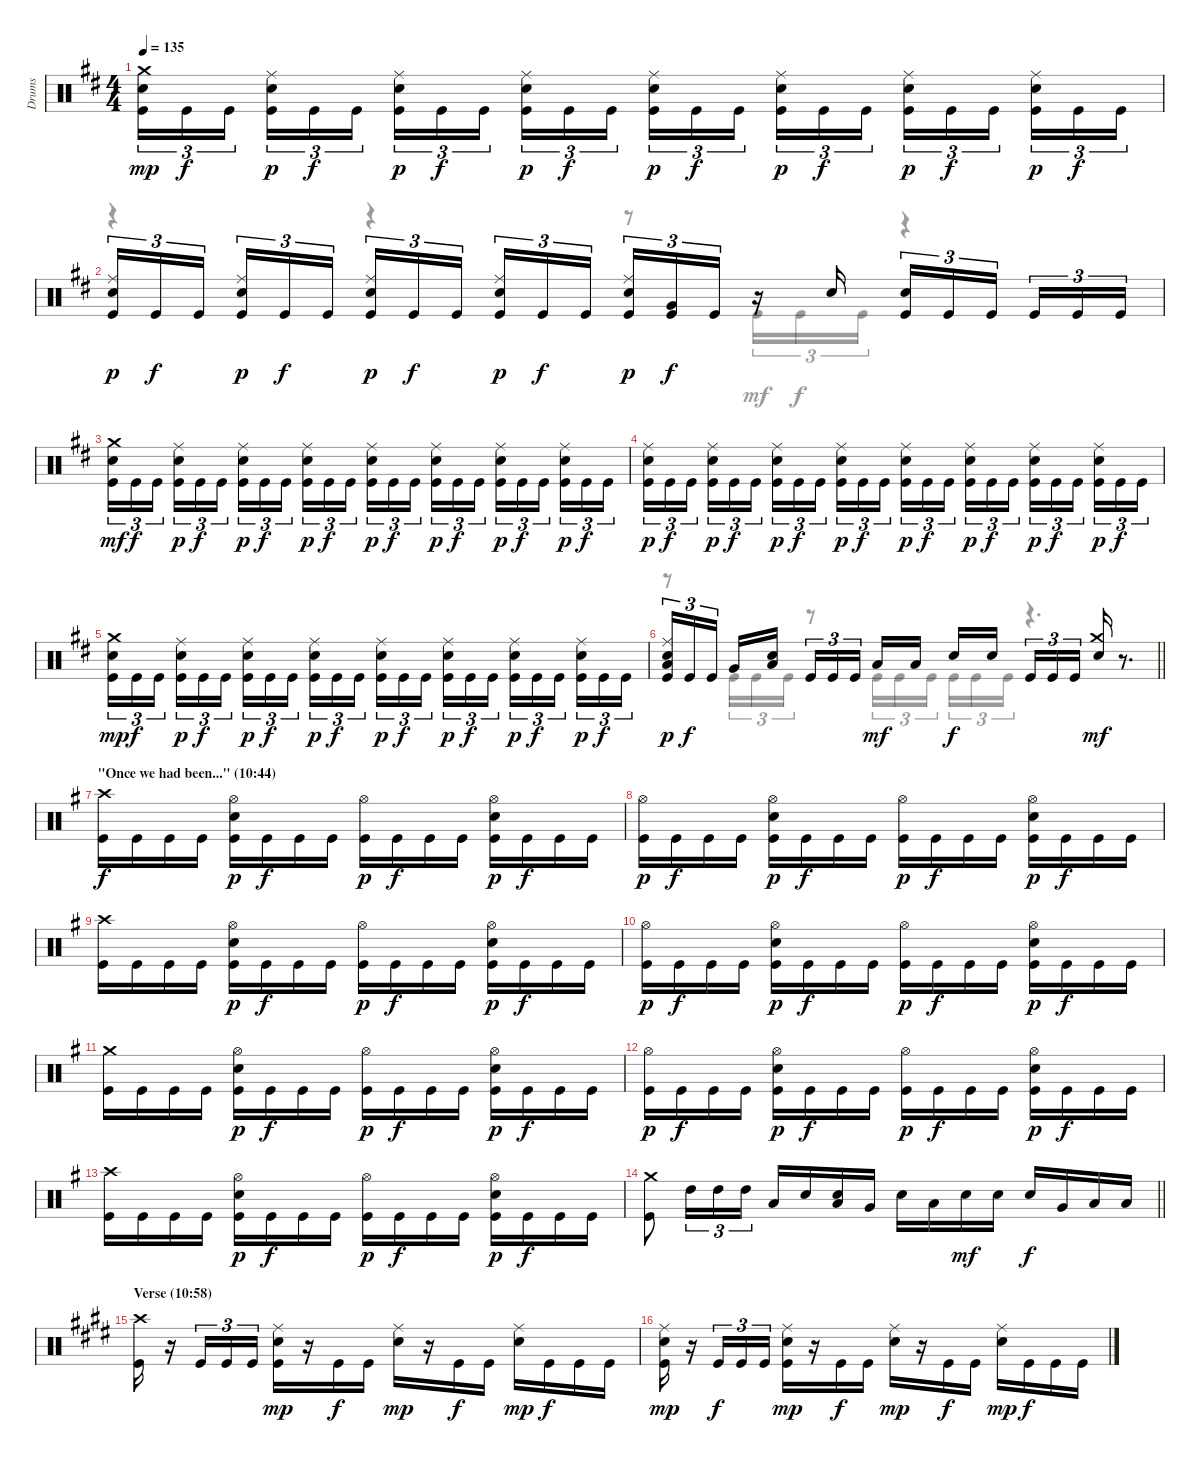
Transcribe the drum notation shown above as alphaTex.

\track ("Drums" "Drums") {instrument percussion}
\staff {score}
\articulation defaults
\voice
\ts (4 4)
\tempo 135
\clef neutral
\ks bminor
("Crash medium (hit)" "Snare (hit) 2" "Kick (hit)").16{tu (3 2) dy mp} "Kick (hit)".16{tu (3 2) dy f} "Kick (hit)".16{tu (3 2) beam splitsecondary} ("Ride (middle)" "Snare (hit) 2" "Kick (hit)").16{tu (3 2) dy p} "Kick (hit)".16{tu (3 2) dy f} "Kick (hit)".16{tu (3 2)} ("Ride (middle)" "Snare (hit) 2" "Kick (hit)").16{tu (3 2) dy p} "Kick (hit)".16{tu (3 2) dy f} "Kick (hit)".16{tu (3 2) beam splitsecondary} ("Ride (middle)" "Snare (hit) 2" "Kick (hit)").16{tu (3 2) dy p} "Kick (hit)".16{tu (3 2) dy f} "Kick (hit)".16{tu (3 2)} ("Ride (middle)" "Snare (hit) 2" "Kick (hit)").16{tu (3 2) dy p} "Kick (hit)".16{tu (3 2) dy f} "Kick (hit)".16{tu (3 2) beam splitsecondary} ("Ride (middle)" "Snare (hit) 2" "Kick (hit)").16{tu (3 2) dy p} "Kick (hit)".16{tu (3 2) dy f} "Kick (hit)".16{tu (3 2)} ("Ride (middle)" "Snare (hit) 2" "Kick (hit)").16{tu (3 2) dy p} "Kick (hit)".16{tu (3 2) dy f} "Kick (hit)".16{tu (3 2) beam splitsecondary} ("Ride (middle)" "Snare (hit) 2" "Kick (hit)").16{tu (3 2) dy p} "Kick (hit)".16{tu (3 2) dy f} "Kick (hit)".16{tu (3 2)} |
("Ride (middle)" "Snare (hit) 2" "Kick (hit)").16{tu (3 2) dy p} "Kick (hit)".16{tu (3 2) dy f} "Kick (hit)".16{tu (3 2) beam splitsecondary} ("Ride (middle)" "Snare (hit) 2" "Kick (hit)").16{tu (3 2) dy p} "Kick (hit)".16{tu (3 2) dy f} "Kick (hit)".16{tu (3 2)} ("Ride (middle)" "Snare (hit) 2" "Kick (hit)").16{tu (3 2) dy p} "Kick (hit)".16{tu (3 2) dy f} "Kick (hit)".16{tu (3 2) beam splitsecondary} ("Ride (middle)" "Snare (hit) 2" "Kick (hit)").16{tu (3 2) dy p} "Kick (hit)".16{tu (3 2) dy f} "Kick (hit)".16{tu (3 2)} ("Ride (middle)" "Snare (hit) 2" "Kick (hit)").16{tu (3 2) dy p} ("Very Low Tom (hit)" "Kick (hit)").16{tu (3 2) dy f} "Kick (hit)".16{tu (3 2)} r.16 "Snare (hit) 2".16 ("Snare (hit) 2" "Kick (hit)").16{tu (3 2)} "Kick (hit)".16{tu (3 2)} "Kick (hit)".16{tu (3 2) beam splitsecondary} "Kick (hit)".16{tu (3 2)} "Kick (hit)".16{tu (3 2)} "Kick (hit)".16{tu (3 2)} |
("Crash medium (hit)" "Snare (hit) 2" "Kick (hit)").16{tu (3 2) dy mf} "Kick (hit)".16{tu (3 2) dy f} "Kick (hit)".16{tu (3 2) beam splitsecondary} ("Ride (middle)" "Snare (hit) 2" "Kick (hit)").16{tu (3 2) dy p} "Kick (hit)".16{tu (3 2) dy f} "Kick (hit)".16{tu (3 2)} ("Ride (middle)" "Snare (hit) 2" "Kick (hit)").16{tu (3 2) dy p} "Kick (hit)".16{tu (3 2) dy f} "Kick (hit)".16{tu (3 2) beam splitsecondary} ("Ride (middle)" "Snare (hit) 2" "Kick (hit)").16{tu (3 2) dy p} "Kick (hit)".16{tu (3 2) dy f} "Kick (hit)".16{tu (3 2)} ("Ride (middle)" "Snare (hit) 2" "Kick (hit)").16{tu (3 2) dy p} "Kick (hit)".16{tu (3 2) dy f} "Kick (hit)".16{tu (3 2) beam splitsecondary} ("Ride (middle)" "Snare (hit) 2" "Kick (hit)").16{tu (3 2) dy p} "Kick (hit)".16{tu (3 2) dy f} "Kick (hit)".16{tu (3 2)} ("Ride (middle)" "Snare (hit) 2" "Kick (hit)").16{tu (3 2) dy p} "Kick (hit)".16{tu (3 2) dy f} "Kick (hit)".16{tu (3 2) beam splitsecondary} ("Ride (middle)" "Snare (hit) 2" "Kick (hit)").16{tu (3 2) dy p} "Kick (hit)".16{tu (3 2) dy f} "Kick (hit)".16{tu (3 2)} |
("Ride (middle)" "Snare (hit) 2" "Kick (hit)").16{tu (3 2) dy p} "Kick (hit)".16{tu (3 2) dy f} "Kick (hit)".16{tu (3 2) beam splitsecondary} ("Ride (middle)" "Snare (hit) 2" "Kick (hit)").16{tu (3 2) dy p} "Kick (hit)".16{tu (3 2) dy f} "Kick (hit)".16{tu (3 2)} ("Ride (middle)" "Snare (hit) 2" "Kick (hit)").16{tu (3 2) dy p} "Kick (hit)".16{tu (3 2) dy f} "Kick (hit)".16{tu (3 2) beam splitsecondary} ("Ride (middle)" "Snare (hit) 2" "Kick (hit)").16{tu (3 2) dy p} "Kick (hit)".16{tu (3 2) dy f} "Kick (hit)".16{tu (3 2)} ("Ride (middle)" "Snare (hit) 2" "Kick (hit)").16{tu (3 2) dy p} "Kick (hit)".16{tu (3 2) dy f} "Kick (hit)".16{tu (3 2) beam splitsecondary} ("Ride (middle)" "Snare (hit) 2" "Kick (hit)").16{tu (3 2) dy p} "Kick (hit)".16{tu (3 2) dy f} "Kick (hit)".16{tu (3 2)} ("Ride (middle)" "Snare (hit) 2" "Kick (hit)").16{tu (3 2) dy p} "Kick (hit)".16{tu (3 2) dy f} "Kick (hit)".16{tu (3 2) beam splitsecondary} ("Ride (middle)" "Snare (hit) 2" "Kick (hit)").16{tu (3 2) dy p} "Kick (hit)".16{tu (3 2) dy f} "Kick (hit)".16{tu (3 2)} |
("Crash medium (hit)" "Snare (hit) 2" "Kick (hit)").16{tu (3 2) dy mp} "Kick (hit)".16{tu (3 2) dy f} "Kick (hit)".16{tu (3 2) beam splitsecondary} ("Ride (middle)" "Snare (hit) 2" "Kick (hit)").16{tu (3 2) dy p} "Kick (hit)".16{tu (3 2) dy f} "Kick (hit)".16{tu (3 2)} ("Ride (middle)" "Snare (hit) 2" "Kick (hit)").16{tu (3 2) dy p} "Kick (hit)".16{tu (3 2) dy f} "Kick (hit)".16{tu (3 2) beam splitsecondary} ("Ride (middle)" "Snare (hit) 2" "Kick (hit)").16{tu (3 2) dy p} "Kick (hit)".16{tu (3 2) dy f} "Kick (hit)".16{tu (3 2)} ("Ride (middle)" "Snare (hit) 2" "Kick (hit)").16{tu (3 2) dy p} "Kick (hit)".16{tu (3 2) dy f} "Kick (hit)".16{tu (3 2) beam splitsecondary} ("Ride (middle)" "Snare (hit) 2" "Kick (hit)").16{tu (3 2) dy p} "Kick (hit)".16{tu (3 2) dy f} "Kick (hit)".16{tu (3 2)} ("Ride (middle)" "Snare (hit) 2" "Kick (hit)").16{tu (3 2) dy p} "Kick (hit)".16{tu (3 2) dy f} "Kick (hit)".16{tu (3 2) beam splitsecondary} ("Ride (middle)" "Snare (hit) 2" "Kick (hit)").16{tu (3 2) dy p} "Kick (hit)".16{tu (3 2) dy f} "Kick (hit)".16{tu (3 2)} |
\barLineRight lightlight
("Ride (middle)" "Low Floor Tom (hit)" "Snare (hit) 2" "Kick (hit)").16{tu (3 2) dy p} "Kick (hit)".16{tu (3 2) dy f} "Kick (hit)".16{tu (3 2) beam splitsecondary} "Very Low Tom (hit)".16 ("Low Floor Tom (hit)" "Snare (hit) 2").16 "Kick (hit)".16{tu (3 2)} "Kick (hit)".16{tu (3 2)} "Kick (hit)".16{tu (3 2) beam splitsecondary} "Low Floor Tom (hit)".16{dy mf} "Low Floor Tom (hit)".16 "Snare (hit) 2".16{dy f} "Snare (hit) 2".16{beam splitsecondary} "Kick (hit)".16{tu (3 2)} "Kick (hit)".16{tu (3 2)} "Kick (hit)".16{tu (3 2)} ("Crash medium (hit)" "Snare (hit) 2").16{dy mf} r.8{d} |
\section ("" "\"Once we had been...\" (10:44)")
\ks eminor
("Crash high (hit)" "Kick (hit)").16{dy f} "Kick (hit)".16 "Kick (hit)".16 "Kick (hit)".16 ("Hi-Hat (open)" "Snare (hit) 2" "Kick (hit)").16{dy p} "Kick (hit)".16{dy f} "Kick (hit)".16 "Kick (hit)".16 ("Hi-Hat (open)" "Kick (hit)").16{dy p} "Kick (hit)".16{dy f} "Kick (hit)".16 "Kick (hit)".16 ("Hi-Hat (open)" "Snare (hit) 2" "Kick (hit)").16{dy p} "Kick (hit)".16{dy f} "Kick (hit)".16 "Kick (hit)".16 |
("Hi-Hat (open)" "Kick (hit)").16{dy p} "Kick (hit)".16{dy f} "Kick (hit)".16 "Kick (hit)".16 ("Hi-Hat (open)" "Snare (hit) 2" "Kick (hit)").16{dy p} "Kick (hit)".16{dy f} "Kick (hit)".16 "Kick (hit)".16 ("Hi-Hat (open)" "Kick (hit)").16{dy p} "Kick (hit)".16{dy f} "Kick (hit)".16 "Kick (hit)".16 ("Hi-Hat (open)" "Snare (hit) 2" "Kick (hit)").16{dy p} "Kick (hit)".16{dy f} "Kick (hit)".16 "Kick (hit)".16 |
("Crash high (hit)" "Kick (hit)").16 "Kick (hit)".16 "Kick (hit)".16 "Kick (hit)".16 ("Hi-Hat (open)" "Snare (hit) 2" "Kick (hit)").16{dy p} "Kick (hit)".16{dy f} "Kick (hit)".16 "Kick (hit)".16 ("Hi-Hat (open)" "Kick (hit)").16{dy p} "Kick (hit)".16{dy f} "Kick (hit)".16 "Kick (hit)".16 ("Hi-Hat (open)" "Snare (hit) 2" "Kick (hit)").16{dy p} "Kick (hit)".16{dy f} "Kick (hit)".16 "Kick (hit)".16 |
("Hi-Hat (open)" "Kick (hit)").16{dy p} "Kick (hit)".16{dy f} "Kick (hit)".16 "Kick (hit)".16 ("Hi-Hat (open)" "Snare (hit) 2" "Kick (hit)").16{dy p} "Kick (hit)".16{dy f} "Kick (hit)".16 "Kick (hit)".16 ("Hi-Hat (open)" "Kick (hit)").16{dy p} "Kick (hit)".16{dy f} "Kick (hit)".16 "Kick (hit)".16 ("Hi-Hat (open)" "Snare (hit) 2" "Kick (hit)").16{dy p} "Kick (hit)".16{dy f} "Kick (hit)".16 "Kick (hit)".16 |
("Crash medium (hit)" "Kick (hit)").16 "Kick (hit)".16 "Kick (hit)".16 "Kick (hit)".16 ("Hi-Hat (open)" "Snare (hit) 2" "Kick (hit)").16{dy p} "Kick (hit)".16{dy f} "Kick (hit)".16 "Kick (hit)".16 ("Hi-Hat (open)" "Kick (hit)").16{dy p} "Kick (hit)".16{dy f} "Kick (hit)".16 "Kick (hit)".16 ("Hi-Hat (open)" "Snare (hit) 2" "Kick (hit)").16{dy p} "Kick (hit)".16{dy f} "Kick (hit)".16 "Kick (hit)".16 |
("Hi-Hat (open)" "Kick (hit)").16{dy p} "Kick (hit)".16{dy f} "Kick (hit)".16 "Kick (hit)".16 ("Hi-Hat (open)" "Snare (hit) 2" "Kick (hit)").16{dy p} "Kick (hit)".16{dy f} "Kick (hit)".16 "Kick (hit)".16 ("Hi-Hat (open)" "Kick (hit)").16{dy p} "Kick (hit)".16{dy f} "Kick (hit)".16 "Kick (hit)".16 ("Hi-Hat (open)" "Snare (hit) 2" "Kick (hit)").16{dy p} "Kick (hit)".16{dy f} "Kick (hit)".16 "Kick (hit)".16 |
("Crash high (hit)" "Kick (hit)").16 "Kick (hit)".16 "Kick (hit)".16 "Kick (hit)".16 ("Hi-Hat (open)" "Snare (hit) 2" "Kick (hit)").16{dy p} "Kick (hit)".16{dy f} "Kick (hit)".16 "Kick (hit)".16 ("Hi-Hat (open)" "Kick (hit)").16{dy p} "Kick (hit)".16{dy f} "Kick (hit)".16 "Kick (hit)".16 ("Hi-Hat (open)" "Snare (hit) 2" "Kick (hit)").16{dy p} "Kick (hit)".16{dy f} "Kick (hit)".16 "Kick (hit)".16 |
\barLineRight lightlight
("Crash medium (hit)" "Kick (hit)").8 "High Tom (hit)".16{tu (3 2)} "High Tom (hit)".16{tu (3 2)} "High Tom (hit)".16{tu (3 2)} "Low Tom (hit)".16 "Snare (hit) 2".16 ("Low Tom (hit)" "Snare (hit) 2").16 "Very Low Tom (hit)".16 "Snare (hit) 2".16 "Low Tom (hit)".16 "Snare (hit) 2".16{dy mf} "Snare (hit) 2".16 "Snare (hit) 2".16{dy f} "Very Low Tom (hit)".16 "Low Floor Tom (hit)".16 "Low Floor Tom (hit)".16 |
\section ("" "Verse (10:58)")
\ks c#minor
("Crash high (hit)" "Kick (hit)").16 r.16 "Kick (hit)".16{tu (3 2)} "Kick (hit)".16{tu (3 2)} "Kick (hit)".16{tu (3 2)} ("Ride (middle)" "Snare (hit) 2" "Kick (hit)").16{dy mp} r.16 "Kick (hit)".16{dy f} "Kick (hit)".16 ("Ride (middle)" "Snare (hit) 2").16{dy mp} r.16 "Kick (hit)".16{dy f} "Kick (hit)".16 ("Ride (middle)" "Snare (hit) 2").16{dy mp} "Kick (hit)".16{dy f} "Kick (hit)".16 "Kick (hit)".16 |
("Ride (middle)" "Snare (hit) 2" "Kick (hit)").16{dy mp} r.16 "Kick (hit)".16{tu (3 2) dy f} "Kick (hit)".16{tu (3 2)} "Kick (hit)".16{tu (3 2)} ("Ride (middle)" "Snare (hit) 2" "Kick (hit)").16{dy mp} r.16 "Kick (hit)".16{dy f} "Kick (hit)".16 ("Ride (middle)" "Snare (hit) 2").16{dy mp} r.16 "Kick (hit)".16{dy f} "Kick (hit)".16 ("Ride (middle)" "Snare (hit) 2").16{dy mp} "Kick (hit)".16{dy f} "Kick (hit)".16 "Kick (hit)".16
\voice
\clef neutral
\ottava regular
\simile none
\ks bminor
|
r.4 r.4 r.8 "Kick (hit)".16{tu (3 2) dy mf} "Kick (hit)".16{tu (3 2) dy f} "Kick (hit)".16{tu (3 2)} r.4 |
|
|
|
\barLineRight lightlight
r.8 "Kick (hit)".16{tu (3 2)} "Kick (hit)".16{tu (3 2)} "Kick (hit)".16{tu (3 2)} r.8 "Kick (hit)".16{tu (3 2)} "Kick (hit)".16{tu (3 2)} "Kick (hit)".16{tu (3 2)} "Kick (hit)".16{tu (3 2)} "Kick (hit)".16{tu (3 2)} "Kick (hit)".16{tu (3 2)} r.4{d} |
\ks eminor
|
|
|
|
|
|
|
\barLineRight lightlight
|
\ks c#minor
|
